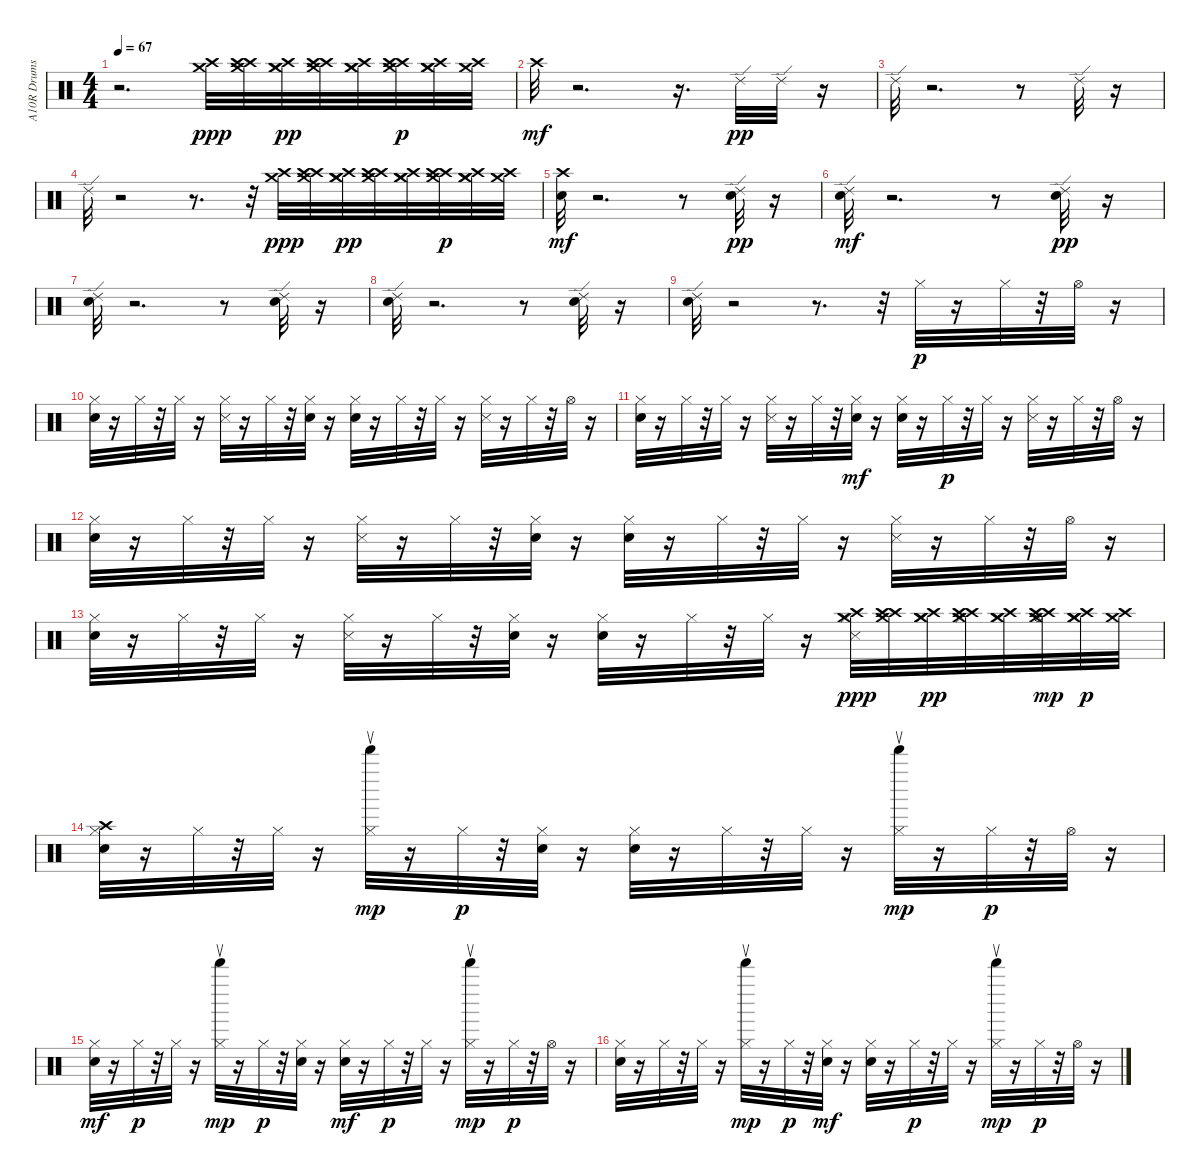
\track ("A10R Drums" "A10R Drums") {instrument percussion}
\staff {score}
\articulation defaults
\ts (4 4)
\tempo 67
\clef neutral
\ks c
r.2{d dy mf} ("Crash high (hit)" "Crash medium (hit)").32{dy ppp} ("Crash high (hit)" "Crash medium (hit)" "Crash high (hit)").32 ("Crash medium (hit)" "Crash high (hit)" "Crash medium (hit)").32{dy pp} ("Crash high (hit)" "Crash medium (hit)" "Crash high (hit)").32 ("Crash medium (hit)" "Crash high (hit)" "Crash medium (hit)").32 ("Crash high (hit)" "Crash medium (hit)" "Crash high (hit)").32{dy p} ("Crash medium (hit)" "Crash high (hit)" "Crash medium (hit)").32 ("Crash high (hit)" "Crash medium (hit)").32 |
"Crash high (hit)".32{dy mf} r.2{d} r.16{d} "Ride (edge) 2".32{dy pp} "Ride (edge) 2".32 r.16 |
"Ride (edge) 2".32 r.2{d} r.8 "Ride (edge) 2".32 r.16 |
"Ride (edge) 2".32 r.2 r.8{d} r.32 ("Crash high (hit)" "Crash medium (hit)").32{dy ppp} ("Crash high (hit)" "Crash medium (hit)" "Crash high (hit)").32 ("Crash medium (hit)" "Crash high (hit)" "Crash medium (hit)").32{dy pp} ("Crash high (hit)" "Crash medium (hit)" "Crash high (hit)").32 ("Crash medium (hit)" "Crash high (hit)" "Crash medium (hit)").32 ("Crash high (hit)" "Crash medium (hit)" "Crash high (hit)").32{dy p} ("Crash medium (hit)" "Crash high (hit)" "Crash medium (hit)").32 ("Crash high (hit)" "Crash medium (hit)").32 |
("Crash high (hit)" "Snare (hit)").32{dy mf} r.2{d} r.8 ("Ride (edge) 2" "Snare (hit)").32{dy pp} r.16 |
("Ride (edge) 2" "Snare (hit)").32{dy mf} r.2{d} r.8 ("Snare (hit)" "Ride (edge) 2").32{dy pp} r.16 |
("Snare (hit)" "Ride (edge) 2").32 r.2{d} r.8 ("Snare (hit)" "Ride (edge) 2").32 r.16 |
("Snare (hit)" "Ride (edge) 2").32 r.2{d} r.8 ("Snare (hit)" "Ride (edge) 2").32 r.16 |
("Snare (hit)" "Ride (edge) 2").32 r.2 r.8{d} r.32 "Hi-Hat (closed)".32{dy p} r.16 "Hi-Hat (closed)".32 r.32 "Hi-Hat (open)".32 r.16 |
("Snare (hit)" "Hi-Hat (closed)").32 r.16 "Hi-Hat (closed)".32 r.32 "Hi-Hat (closed)".32 r.16 ("Snare (side stick) 3" "Hi-Hat (closed)").32 r.16 "Hi-Hat (closed)".32 r.32 ("Snare (hit)" "Hi-Hat (closed)").32 r.16 ("Snare (hit)" "Hi-Hat (closed)").32 r.16 "Hi-Hat (closed)".32 r.32 "Hi-Hat (closed)".32 r.16 ("Snare (side stick) 3" "Hi-Hat (closed)").32 r.16 "Hi-Hat (closed)".32 r.32 "Hi-Hat (open)".32 r.16 |
("Snare (hit)" "Hi-Hat (closed)").32 r.16 "Hi-Hat (closed)".32 r.32 "Hi-Hat (closed)".32 r.16 ("Snare (side stick) 3" "Hi-Hat (closed)").32 r.16 "Hi-Hat (closed)".32 r.32 ("Hi-Hat (closed)" "Snare (hit)").32{dy mf} r.16 ("Hi-Hat (closed)" "Snare (hit)").32 r.16 "Hi-Hat (closed)".32{dy p} r.32 "Hi-Hat (closed)".32 r.16 ("Hi-Hat (closed)" "Snare (side stick) 3").32 r.16 "Hi-Hat (closed)".32 r.32 "Hi-Hat (open)".32 r.16 |
("Snare (hit)" "Hi-Hat (closed)").32 r.16 "Hi-Hat (closed)".32 r.32 "Hi-Hat (closed)".32 r.16 ("Hi-Hat (closed)" "Snare (side stick) 3").32 r.16 "Hi-Hat (closed)".32 r.32 ("Snare (hit)" "Hi-Hat (closed)").32 r.16 ("Snare (hit)" "Hi-Hat (closed)").32 r.16 "Hi-Hat (closed)".32 r.32 "Hi-Hat (closed)".32 r.16 ("Snare (side stick) 3" "Hi-Hat (closed)").32 r.16 "Hi-Hat (closed)".32 r.32 "Hi-Hat (open)".32 r.16 |
("Snare (hit)" "Hi-Hat (closed)").32 r.16 "Hi-Hat (closed)".32 r.32 "Hi-Hat (closed)".32 r.16 ("Hi-Hat (closed)" "Snare (side stick) 3").32 r.16 "Hi-Hat (closed)".32 r.32 ("Snare (hit)" "Hi-Hat (closed)").32 r.16 ("Snare (hit)" "Hi-Hat (closed)").32 r.16 "Hi-Hat (closed)".32 r.32 "Hi-Hat (closed)".32 r.16 ("Crash high (hit)" "Hi-Hat (closed)" "Snare (side stick) 3" "Crash medium (hit)").32{dy ppp} ("Crash high (hit)" "Crash medium (hit)" "Crash high (hit)").32 ("Crash medium (hit)" "Crash high (hit)" "Crash medium (hit)").32{dy pp} ("Crash high (hit)" "Hi-Hat (closed)" "Crash medium (hit)" "Crash high (hit)").32 ("Crash medium (hit)" "Crash high (hit)" "Crash medium (hit)").32 ("Crash high (hit)" "Crash medium (hit)" "Crash high (hit)" "Hi-Hat (open)").32{dy mp} ("Crash medium (hit)" "Crash high (hit)" "Crash medium (hit)").32{dy p} ("Crash high (hit)" "Crash medium (hit)").32 |
("Snare (hit)" "Crash high (hit)" "Hi-Hat (closed)").32 r.16 "Hi-Hat (closed)".32 r.32 "Hi-Hat (closed)".32 r.16 ("Hi-Hat (closed)" "Bell Tee (return)").32{dy mp} r.16 "Hi-Hat (closed)".32{dy p} r.32 ("Snare (hit)" "Hi-Hat (closed)").32 r.16 ("Snare (hit)" "Hi-Hat (closed)").32 r.16 "Hi-Hat (closed)".32 r.32 "Hi-Hat (closed)".32 r.16 ("Hi-Hat (closed)" "Bell Tee (return)").32{dy mp} r.16 "Hi-Hat (closed)".32{dy p} r.32 "Hi-Hat (open)".32 r.16 |
("Hi-Hat (closed)" "Snare (hit)").32{dy mf} r.16 "Hi-Hat (closed)".32{dy p} r.32 "Hi-Hat (closed)".32 r.16 ("Hi-Hat (closed)" "Bell Tee (return)").32{dy mp} r.16 "Hi-Hat (closed)".32{dy p} r.32 ("Snare (hit)" "Hi-Hat (closed)").32 r.16 ("Hi-Hat (closed)" "Snare (hit)").32{dy mf} r.16 "Hi-Hat (closed)".32{dy p} r.32 "Hi-Hat (closed)".32 r.16 ("Hi-Hat (closed)" "Bell Tee (return)").32{dy mp} r.16 "Hi-Hat (closed)".32{dy p} r.32 "Hi-Hat (open)".32 r.16 |
("Snare (hit)" "Hi-Hat (closed)").32 r.16 "Hi-Hat (closed)".32 r.32 "Hi-Hat (closed)".32 r.16 ("Hi-Hat (closed)" "Bell Tee (return)").32{dy mp} r.16 "Hi-Hat (closed)".32{dy p} r.32 ("Hi-Hat (closed)" "Snare (hit)").32{dy mf} r.16 ("Hi-Hat (closed)" "Snare (hit)").32 r.16 "Hi-Hat (closed)".32{dy p} r.32 "Hi-Hat (closed)".32 r.16 ("Hi-Hat (closed)" "Bell Tee (return)").32{dy mp} r.16 "Hi-Hat (closed)".32{dy p} r.32 "Hi-Hat (open)".32 r.16
